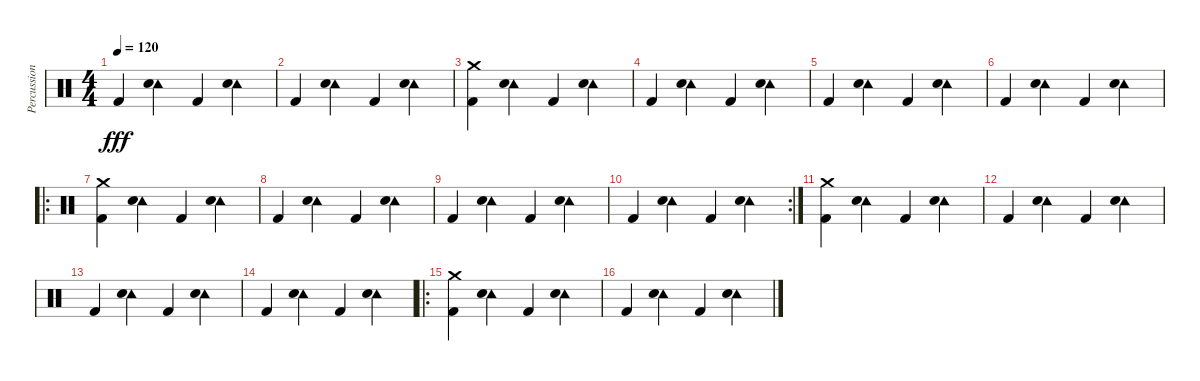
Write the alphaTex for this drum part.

\track ("Percussion" "Percussion") {instrument percussion}
\staff {score}
\articulation defaults
\ts (4 4)
\tempo 120
\clef neutral
\ks c "Kick (hit) 2".4{dy fff}
("Tambourine (hit)" "Electric Snare (hit)").4 "Kick (hit) 2".4 ("Tambourine (hit)" "Electric Snare (hit)").4 |
"Kick (hit) 2".4 ("Tambourine (hit)" "Electric Snare (hit)").4 "Kick (hit) 2".4 ("Tambourine (hit)" "Electric Snare (hit)").4 |
("Crash medium (hit)" "Kick (hit) 2").4 ("Tambourine (hit)" "Electric Snare (hit)").4 "Kick (hit) 2".4 ("Tambourine (hit)" "Electric Snare (hit)").4 |
"Kick (hit) 2".4 ("Tambourine (hit)" "Electric Snare (hit)").4 "Kick (hit) 2".4 ("Tambourine (hit)" "Electric Snare (hit)").4 |
"Kick (hit) 2".4 ("Tambourine (hit)" "Electric Snare (hit)").4 "Kick (hit) 2".4 ("Tambourine (hit)" "Electric Snare (hit)").4 |
"Kick (hit) 2".4 ("Tambourine (hit)" "Electric Snare (hit)").4 "Kick (hit) 2".4 ("Tambourine (hit)" "Electric Snare (hit)").4 |
\ro
("Crash medium (hit)" "Kick (hit) 2").4 ("Tambourine (hit)" "Electric Snare (hit)").4 "Kick (hit) 2".4 ("Tambourine (hit)" "Electric Snare (hit)").4 |
"Kick (hit) 2".4 ("Tambourine (hit)" "Electric Snare (hit)").4 "Kick (hit) 2".4 ("Tambourine (hit)" "Electric Snare (hit)").4 |
"Kick (hit) 2".4 ("Tambourine (hit)" "Electric Snare (hit)").4 "Kick (hit) 2".4 ("Tambourine (hit)" "Electric Snare (hit)").4 |
\rc 2 "Kick (hit) 2".4
("Tambourine (hit)" "Electric Snare (hit)").4 "Kick (hit) 2".4 ("Tambourine (hit)" "Electric Snare (hit)").4 |
("Crash medium (hit)" "Kick (hit) 2").4 ("Tambourine (hit)" "Electric Snare (hit)").4 "Kick (hit) 2".4 ("Tambourine (hit)" "Electric Snare (hit)").4 |
"Kick (hit) 2".4 ("Tambourine (hit)" "Electric Snare (hit)").4 "Kick (hit) 2".4 ("Tambourine (hit)" "Electric Snare (hit)").4 |
"Kick (hit) 2".4 ("Tambourine (hit)" "Electric Snare (hit)").4 "Kick (hit) 2".4 ("Tambourine (hit)" "Electric Snare (hit)").4 |
"Kick (hit) 2".4 ("Tambourine (hit)" "Electric Snare (hit)").4 "Kick (hit) 2".4 ("Tambourine (hit)" "Electric Snare (hit)").4 |
\ro
("Crash medium (hit)" "Kick (hit) 2").4 ("Tambourine (hit)" "Electric Snare (hit)").4 "Kick (hit) 2".4 ("Tambourine (hit)" "Electric Snare (hit)").4 |
"Kick (hit) 2".4 ("Tambourine (hit)" "Electric Snare (hit)").4 "Kick (hit) 2".4 ("Tambourine (hit)" "Electric Snare (hit)").4
